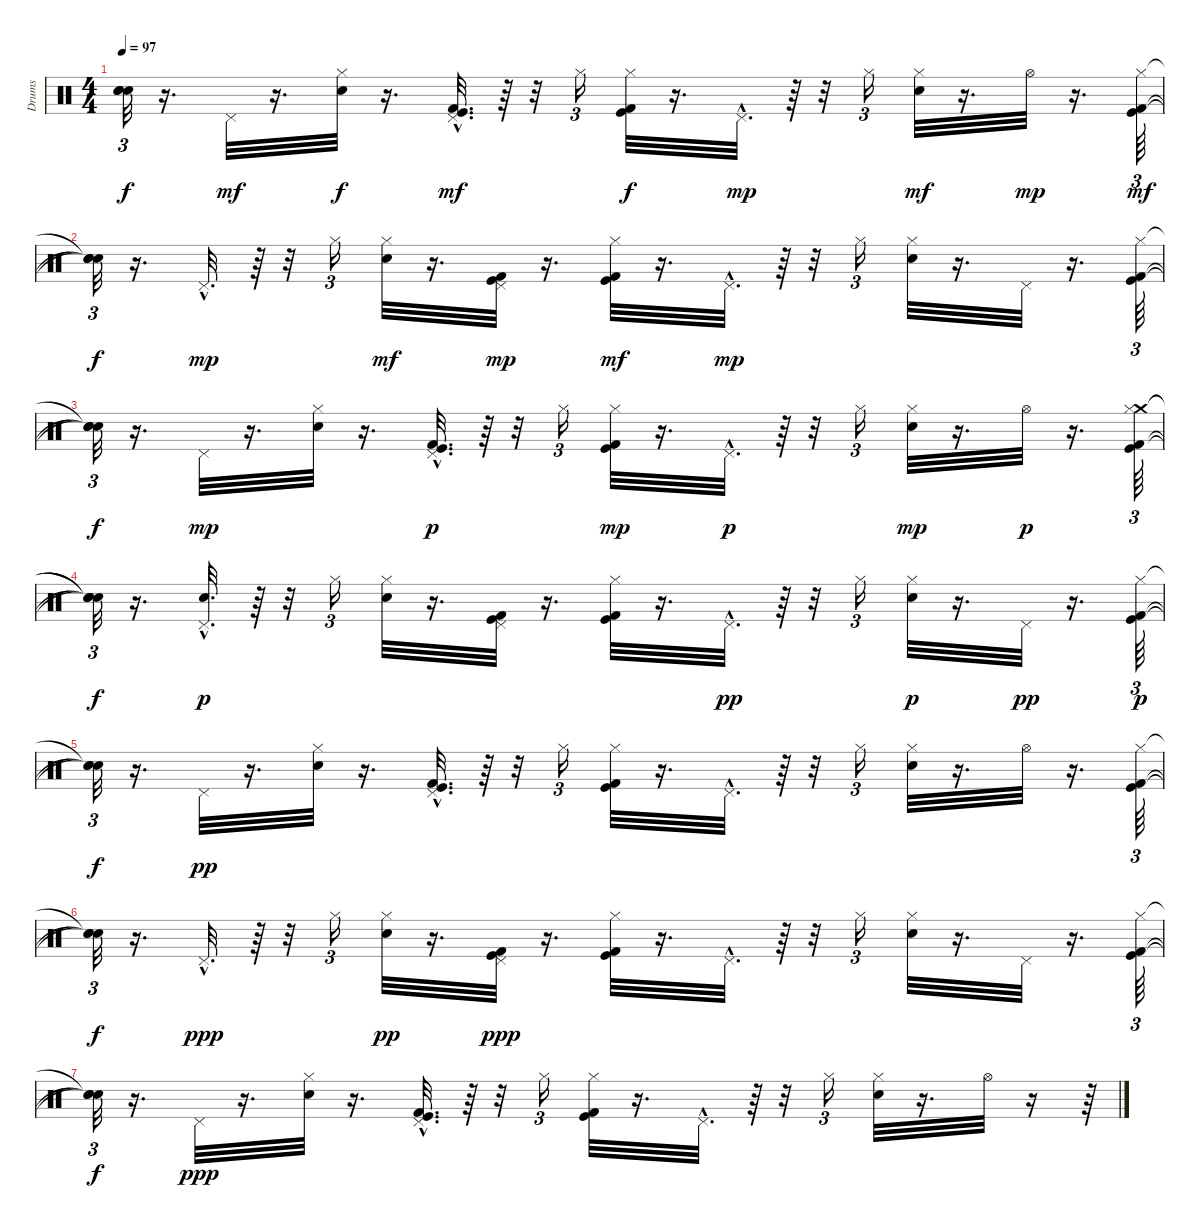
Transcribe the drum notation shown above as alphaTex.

\track ("Drums" "Drums") {instrument percussion}
\staff {score}
\articulation defaults
\ts (4 4)
\tempo 97
\clef neutral
\ks c
("Snare (hit)"{t} "Snare (hit)"{t} "Snare (hit)"{t}).32{tu (3 2) dy f} r.16{d} "Pedal Hi-Hat (hit)".32{dy mf} r.16{d} ("Hi-Hat (closed)" "Snare (hit) 2").32{dy f} r.16{d} ("Kick (hit) 2"{hac} "Kick (hit)"{hac} "Pedal Hi-Hat (hit)"{hac}).32{d dy mf} r.64 r.32 "Hi-Hat (closed)".16{tu (3 2)} ("Kick (hit)" "Kick (hit) 2" "Hi-Hat (closed)").32{dy f} r.16{d} "Pedal Hi-Hat (hit)"{hac}.32{d dy mp} r.64 r.32 "Hi-Hat (closed)".16{tu (3 2)} ("Hi-Hat (closed)" "Snare (hit) 2").32{dy mf} r.16{d} "Hi-Hat (open)".32{dy mp} r.16{d} ("Kick (hit)" "Kick (hit) 2" "Hi-Hat (closed)").64{tu (3 2) dy mf} |
("Snare (hit)"{t} "Snare (hit)"{t} "Snare (hit)"{t}).32{tu (3 2) dy f} r.16{d} "Pedal Hi-Hat (hit)"{hac}.32{d dy mp} r.64 r.32 "Hi-Hat (closed)".16{tu (3 2)} ("Hi-Hat (closed)" "Snare (hit) 2").32{dy mf} r.16{d} ("Kick (hit) 2" "Kick (hit)" "Pedal Hi-Hat (hit)").32{dy mp} r.16{d} ("Kick (hit)" "Kick (hit) 2" "Hi-Hat (closed)").32{dy mf} r.16{d} "Pedal Hi-Hat (hit)"{hac}.32{d dy mp} r.64 r.32 "Hi-Hat (closed)".16{tu (3 2)} ("Hi-Hat (closed)" "Snare (hit) 2").32 r.16{d} "Pedal Hi-Hat (hit)".32 r.16{d} ("Kick (hit)" "Kick (hit) 2" "Hi-Hat (closed)").64{tu (3 2)} |
("Snare (hit)"{t} "Snare (hit)"{t} "Snare (hit)"{t}).32{tu (3 2) dy f} r.16{d} "Pedal Hi-Hat (hit)".32{dy mp} r.16{d} ("Hi-Hat (closed)" "Snare (hit) 2").32 r.16{d} ("Kick (hit) 2"{hac} "Kick (hit)"{hac} "Pedal Hi-Hat (hit)"{hac}).32{d dy p} r.64 r.32 "Hi-Hat (closed)".16{tu (3 2)} ("Kick (hit)" "Kick (hit) 2" "Hi-Hat (closed)").32{dy mp} r.16{d} "Pedal Hi-Hat (hit)"{hac}.32{d dy p} r.64 r.32 "Hi-Hat (closed)".16{tu (3 2)} ("Hi-Hat (closed)" "Snare (hit) 2").32{dy mp} r.16{d} "Hi-Hat (open)".32{dy p} r.16{d} ("Crash medium (hit)" "Kick (hit)" "Kick (hit) 2" "Hi-Hat (closed)").64{tu (3 2)} |
("Snare (hit)"{t} "Snare (hit)"{t} "Snare (hit)"{t} "Snare (hit)"{t}).32{tu (3 2) dy f} r.16{d} ("Snare (hit) 2"{hac} "Pedal Hi-Hat (hit)"{hac}).32{d dy p} r.64 r.32 "Hi-Hat (closed)".16{tu (3 2)} ("Hi-Hat (closed)" "Snare (hit) 2").32 r.16{d} ("Kick (hit) 2" "Kick (hit)" "Pedal Hi-Hat (hit)").32 r.16{d} ("Kick (hit)" "Kick (hit) 2" "Hi-Hat (closed)").32 r.16{d} "Pedal Hi-Hat (hit)"{hac}.32{d dy pp} r.64 r.32 "Hi-Hat (closed)".16{tu (3 2)} ("Hi-Hat (closed)" "Snare (hit) 2").32{dy p} r.16{d} "Pedal Hi-Hat (hit)".32{dy pp} r.16{d} ("Kick (hit)" "Kick (hit) 2" "Hi-Hat (closed)").64{tu (3 2) dy p} |
("Snare (hit)"{t} "Snare (hit)"{t} "Snare (hit)"{t}).32{tu (3 2) dy f} r.16{d} "Pedal Hi-Hat (hit)".32{dy pp} r.16{d} ("Hi-Hat (closed)" "Snare (hit) 2").32 r.16{d} ("Kick (hit) 2"{hac} "Kick (hit)"{hac} "Pedal Hi-Hat (hit)"{hac}).32{d} r.64 r.32 "Hi-Hat (closed)".16{tu (3 2)} ("Kick (hit)" "Kick (hit) 2" "Hi-Hat (closed)").32 r.16{d} "Pedal Hi-Hat (hit)"{hac}.32{d} r.64 r.32 "Hi-Hat (closed)".16{tu (3 2)} ("Hi-Hat (closed)" "Snare (hit) 2").32 r.16{d} "Hi-Hat (open)".32 r.16{d} ("Kick (hit)" "Kick (hit) 2" "Hi-Hat (closed)").64{tu (3 2)} |
("Snare (hit)"{t} "Snare (hit)"{t} "Snare (hit)"{t}).32{tu (3 2) dy f} r.16{d} "Pedal Hi-Hat (hit)"{hac}.32{d dy ppp} r.64 r.32 "Hi-Hat (closed)".16{tu (3 2)} ("Hi-Hat (closed)" "Snare (hit) 2").32{dy pp} r.16{d} ("Kick (hit) 2" "Kick (hit)" "Pedal Hi-Hat (hit)").32{dy ppp} r.16{d} ("Kick (hit)" "Kick (hit) 2" "Hi-Hat (closed)").32 r.16{d} "Pedal Hi-Hat (hit)"{hac}.32{d} r.64 r.32 "Hi-Hat (closed)".16{tu (3 2)} ("Hi-Hat (closed)" "Snare (hit) 2").32 r.16{d} "Pedal Hi-Hat (hit)".32 r.16{d} ("Kick (hit)" "Kick (hit) 2" "Hi-Hat (closed)").64{tu (3 2)} |
("Snare (hit)"{t} "Snare (hit)"{t} "Snare (hit)"{t}).32{tu (3 2) dy f} r.16{d} "Pedal Hi-Hat (hit)".32{dy ppp} r.16{d} ("Hi-Hat (closed)" "Snare (hit) 2").32 r.16{d} ("Kick (hit) 2"{hac} "Kick (hit)"{hac} "Pedal Hi-Hat (hit)"{hac}).32{d} r.64 r.32 "Hi-Hat (closed)".16{tu (3 2)} ("Kick (hit)" "Kick (hit) 2" "Hi-Hat (closed)").32 r.16{d} "Pedal Hi-Hat (hit)"{hac}.32{d} r.64 r.32 "Hi-Hat (closed)".16{tu (3 2)} ("Hi-Hat (closed)" "Snare (hit) 2").32 r.16{d} "Hi-Hat (open)".32 r.16 r.64
